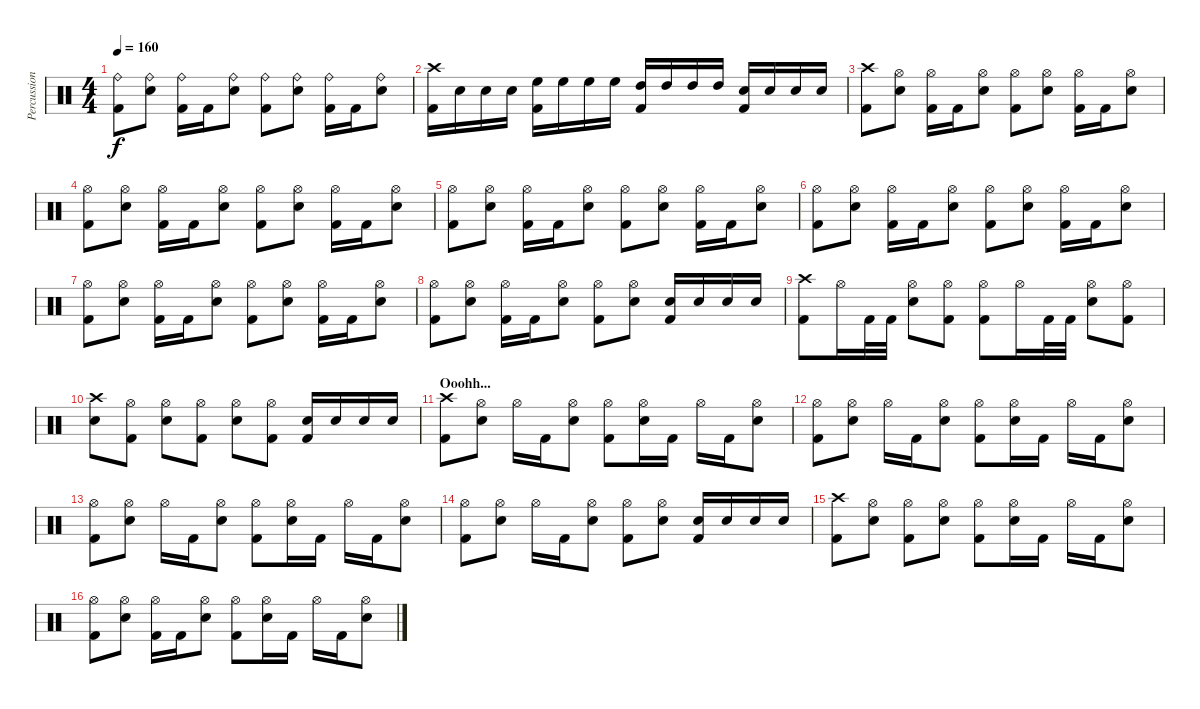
\track ("Percussion" "Percussion") {instrument percussion}
\staff {score}
\articulation defaults
\ts (4 4)
\tempo 160
\clef neutral
\ks c
("Ride (bell)" "Kick (hit) 2").8{dy f} ("Ride (bell)" "Electric Snare (hit)").8 ("Ride (bell)" "Kick (hit) 2").16 "Kick (hit) 2".16 ("Ride (bell)" "Electric Snare (hit)").8 ("Ride (bell)" "Kick (hit) 2").8 ("Ride (bell)" "Electric Snare (hit)").8 ("Ride (bell)" "Kick (hit) 2").16 "Kick (hit) 2".16 ("Ride (bell)" "Electric Snare (hit)").8 |
("Crash high (hit)" "Kick (hit) 2").16 "Electric Snare (hit)".16 "Electric Snare (hit)".16 "Electric Snare (hit)".16 ("High Floor Tom (hit)" "Kick (hit) 2").16 "High Floor Tom (hit)".16 "High Floor Tom (hit)".16 "High Floor Tom (hit)".16 ("High Tom (hit)" "Kick (hit) 2").16 "High Tom (hit)".16 "High Tom (hit)".16 "High Tom (hit)".16 ("Electric Snare (hit)" "Kick (hit) 2").16 "Electric Snare (hit)".16 "Electric Snare (hit)".16 "Electric Snare (hit)".16 |
("Crash high (hit)" "Kick (hit) 2").8 ("Hi-Hat (open)" "Electric Snare (hit)").8 ("Hi-Hat (open)" "Kick (hit) 2").16 "Kick (hit) 2".16 ("Hi-Hat (open)" "Electric Snare (hit)").8 ("Hi-Hat (open)" "Kick (hit) 2").8 ("Hi-Hat (open)" "Electric Snare (hit)").8 ("Hi-Hat (open)" "Kick (hit) 2").16 "Kick (hit) 2".16 ("Hi-Hat (open)" "Electric Snare (hit)").8 |
("Hi-Hat (open)" "Kick (hit) 2").8 ("Hi-Hat (open)" "Electric Snare (hit)").8 ("Hi-Hat (open)" "Kick (hit) 2").16 "Kick (hit) 2".16 ("Hi-Hat (open)" "Electric Snare (hit)").8 ("Hi-Hat (open)" "Kick (hit) 2").8 ("Hi-Hat (open)" "Electric Snare (hit)").8 ("Hi-Hat (open)" "Kick (hit) 2").16 "Kick (hit) 2".16 ("Hi-Hat (open)" "Electric Snare (hit)").8 |
("Hi-Hat (open)" "Kick (hit) 2").8 ("Hi-Hat (open)" "Electric Snare (hit)").8 ("Hi-Hat (open)" "Kick (hit) 2").16 "Kick (hit) 2".16 ("Hi-Hat (open)" "Electric Snare (hit)").8 ("Hi-Hat (open)" "Kick (hit) 2").8 ("Hi-Hat (open)" "Electric Snare (hit)").8 ("Hi-Hat (open)" "Kick (hit) 2").16 "Kick (hit) 2".16 ("Hi-Hat (open)" "Electric Snare (hit)").8 |
("Hi-Hat (open)" "Kick (hit) 2").8 ("Hi-Hat (open)" "Electric Snare (hit)").8 ("Hi-Hat (open)" "Kick (hit) 2").16 "Kick (hit) 2".16 ("Hi-Hat (open)" "Electric Snare (hit)").8 ("Hi-Hat (open)" "Kick (hit) 2").8 ("Hi-Hat (open)" "Electric Snare (hit)").8 ("Hi-Hat (open)" "Kick (hit) 2").16 "Kick (hit) 2".16 ("Hi-Hat (open)" "Electric Snare (hit)").8 |
("Hi-Hat (open)" "Kick (hit) 2").8 ("Hi-Hat (open)" "Electric Snare (hit)").8 ("Hi-Hat (open)" "Kick (hit) 2").16 "Kick (hit) 2".16 ("Hi-Hat (open)" "Electric Snare (hit)").8 ("Hi-Hat (open)" "Kick (hit) 2").8 ("Hi-Hat (open)" "Electric Snare (hit)").8 ("Hi-Hat (open)" "Kick (hit) 2").16 "Kick (hit) 2".16 ("Hi-Hat (open)" "Electric Snare (hit)").8 |
("Hi-Hat (open)" "Kick (hit) 2").8 ("Hi-Hat (open)" "Electric Snare (hit)").8 ("Hi-Hat (open)" "Kick (hit) 2").16 "Kick (hit) 2".16 ("Hi-Hat (open)" "Electric Snare (hit)").8 ("Hi-Hat (open)" "Kick (hit) 2").8 ("Hi-Hat (open)" "Electric Snare (hit)").8 ("Electric Snare (hit)" "Kick (hit) 2").16 "Electric Snare (hit)".16 "Electric Snare (hit)".16 "Electric Snare (hit)".16 |
("Crash high (hit)" "Kick (hit) 2").8 "Hi-Hat (open)".16 "Kick (hit) 2".32 "Kick (hit) 2".32 ("Hi-Hat (open)" "Electric Snare (hit)").8 ("Hi-Hat (open)" "Kick (hit) 2").8 ("Hi-Hat (open)" "Kick (hit) 2").8 "Hi-Hat (open)".16 "Kick (hit) 2".32 "Kick (hit) 2".32 ("Hi-Hat (open)" "Electric Snare (hit)").8 ("Hi-Hat (open)" "Kick (hit) 2").8 |
("Crash high (hit)" "Electric Snare (hit)").8 ("Hi-Hat (open)" "Kick (hit) 2").8 ("Hi-Hat (open)" "Electric Snare (hit)").8 ("Hi-Hat (open)" "Kick (hit) 2").8 ("Hi-Hat (open)" "Electric Snare (hit)").8 ("Hi-Hat (open)" "Kick (hit) 2").8 ("Electric Snare (hit)" "Kick (hit) 2").16 "Electric Snare (hit)".16 "Electric Snare (hit)".16 "Electric Snare (hit)".16 |
\section ("" "Ooohh...")
("Crash high (hit)" "Kick (hit) 2").8 ("Hi-Hat (open)" "Electric Snare (hit)").8 "Hi-Hat (open)".16 "Kick (hit) 2".16 ("Hi-Hat (open)" "Electric Snare (hit)").8 ("Hi-Hat (open)" "Kick (hit) 2").8 ("Hi-Hat (open)" "Electric Snare (hit)").16 "Kick (hit) 2".16 "Hi-Hat (open)".16 "Kick (hit) 2".16 ("Hi-Hat (open)" "Electric Snare (hit)").8 |
("Hi-Hat (open)" "Kick (hit) 2").8 ("Hi-Hat (open)" "Electric Snare (hit)").8 "Hi-Hat (open)".16 "Kick (hit) 2".16 ("Hi-Hat (open)" "Electric Snare (hit)").8 ("Hi-Hat (open)" "Kick (hit) 2").8 ("Hi-Hat (open)" "Electric Snare (hit)").16 "Kick (hit) 2".16 "Hi-Hat (open)".16 "Kick (hit) 2".16 ("Hi-Hat (open)" "Electric Snare (hit)").8 |
("Hi-Hat (open)" "Kick (hit) 2").8 ("Hi-Hat (open)" "Electric Snare (hit)").8 "Hi-Hat (open)".16 "Kick (hit) 2".16 ("Hi-Hat (open)" "Electric Snare (hit)").8 ("Hi-Hat (open)" "Kick (hit) 2").8 ("Hi-Hat (open)" "Electric Snare (hit)").16 "Kick (hit) 2".16 "Hi-Hat (open)".16 "Kick (hit) 2".16 ("Hi-Hat (open)" "Electric Snare (hit)").8 |
("Hi-Hat (open)" "Kick (hit) 2").8 ("Hi-Hat (open)" "Electric Snare (hit)").8 "Hi-Hat (open)".16 "Kick (hit) 2".16 ("Hi-Hat (open)" "Electric Snare (hit)").8 ("Hi-Hat (open)" "Kick (hit) 2").8 ("Hi-Hat (open)" "Electric Snare (hit)").8 ("Electric Snare (hit)" "Kick (hit) 2").16 "Electric Snare (hit)".16 "Electric Snare (hit)".16 "Electric Snare (hit)".16 |
("Crash high (hit)" "Kick (hit) 2").8 ("Hi-Hat (open)" "Electric Snare (hit)").8 ("Hi-Hat (open)" "Kick (hit) 2").8 ("Hi-Hat (open)" "Electric Snare (hit)").8 ("Hi-Hat (open)" "Kick (hit) 2").8 ("Hi-Hat (open)" "Electric Snare (hit)").16 "Kick (hit) 2".16 "Hi-Hat (open)".16 "Kick (hit) 2".16 ("Hi-Hat (open)" "Electric Snare (hit)").8 |
("Hi-Hat (open)" "Kick (hit) 2").8 ("Hi-Hat (open)" "Electric Snare (hit)").8 ("Hi-Hat (open)" "Kick (hit) 2").16 "Kick (hit) 2".16 ("Hi-Hat (open)" "Electric Snare (hit)").8 ("Hi-Hat (open)" "Kick (hit) 2").8 ("Hi-Hat (open)" "Electric Snare (hit)").16 "Kick (hit) 2".16 "Hi-Hat (open)".16 "Kick (hit) 2".16 ("Hi-Hat (open)" "Electric Snare (hit)").8
